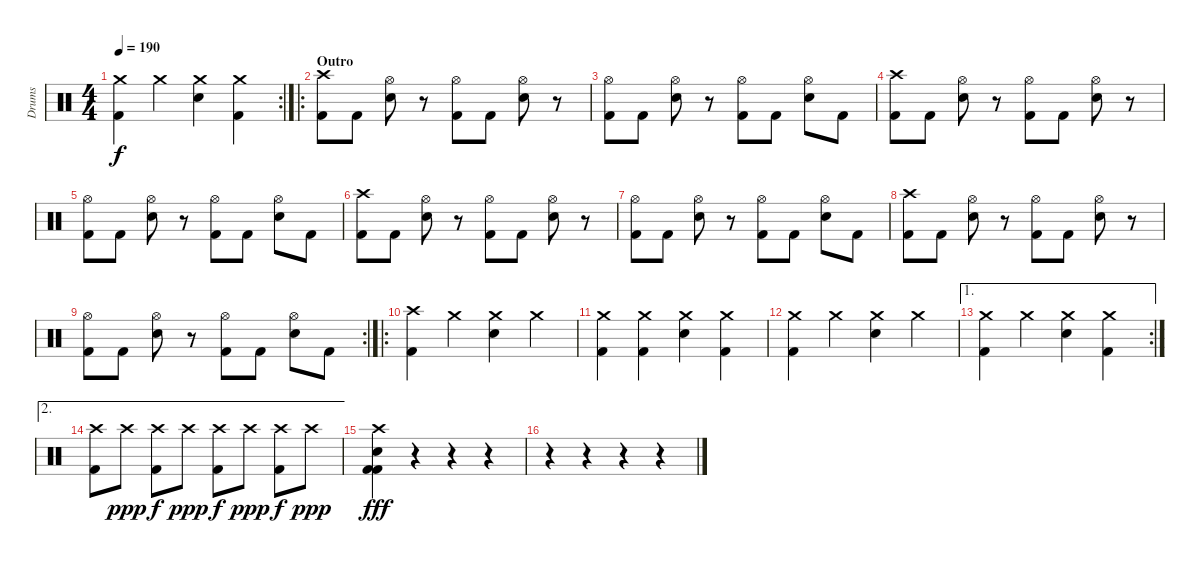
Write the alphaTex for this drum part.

\track ("Drums" "Drums") {instrument percussion}
\staff {score}
\articulation defaults
\rc 2
\ts (4 4)
\tempo 190
\clef neutral
\ks c
("Crash medium (hit)" "Kick (hit) 2").4{dy f} "Crash medium (hit)".4 ("Crash medium (hit)" "Electric Snare (hit)").4 ("Crash medium (hit)" "Kick (hit) 2").4 |
\ro
\section ("" "Outro")
("Crash high (hit)" "Kick (hit) 2").8 "Kick (hit) 2".8 ("Hi-Hat (open)" "Electric Snare (hit)").8 r.8 ("Hi-Hat (open)" "Kick (hit) 2").8 "Kick (hit) 2".8 ("Hi-Hat (open)" "Electric Snare (hit)").8 r.8 |
("Hi-Hat (open)" "Kick (hit) 2").8 "Kick (hit) 2".8 ("Hi-Hat (open)" "Electric Snare (hit)").8 r.8 ("Hi-Hat (open)" "Kick (hit) 2").8 "Kick (hit) 2".8 ("Hi-Hat (open)" "Electric Snare (hit)").8 "Kick (hit) 2".8 |
("Crash high (hit)" "Kick (hit) 2").8 "Kick (hit) 2".8 ("Hi-Hat (open)" "Electric Snare (hit)").8 r.8 ("Hi-Hat (open)" "Kick (hit) 2").8 "Kick (hit) 2".8 ("Hi-Hat (open)" "Electric Snare (hit)").8 r.8 |
("Hi-Hat (open)" "Kick (hit) 2").8 "Kick (hit) 2".8 ("Hi-Hat (open)" "Electric Snare (hit)").8 r.8 ("Hi-Hat (open)" "Kick (hit) 2").8 "Kick (hit) 2".8 ("Hi-Hat (open)" "Electric Snare (hit)").8 "Kick (hit) 2".8 |
("Crash high (hit)" "Kick (hit) 2").8 "Kick (hit) 2".8 ("Hi-Hat (open)" "Electric Snare (hit)").8 r.8 ("Hi-Hat (open)" "Kick (hit) 2").8 "Kick (hit) 2".8 ("Hi-Hat (open)" "Electric Snare (hit)").8 r.8 |
("Hi-Hat (open)" "Kick (hit) 2").8 "Kick (hit) 2".8 ("Hi-Hat (open)" "Electric Snare (hit)").8 r.8 ("Hi-Hat (open)" "Kick (hit) 2").8 "Kick (hit) 2".8 ("Hi-Hat (open)" "Electric Snare (hit)").8 "Kick (hit) 2".8 |
("Crash high (hit)" "Kick (hit) 2").8 "Kick (hit) 2".8 ("Hi-Hat (open)" "Electric Snare (hit)").8 r.8 ("Hi-Hat (open)" "Kick (hit) 2").8 "Kick (hit) 2".8 ("Hi-Hat (open)" "Electric Snare (hit)").8 r.8 |
\rc 2
("Hi-Hat (open)" "Kick (hit) 2").8 "Kick (hit) 2".8 ("Hi-Hat (open)" "Electric Snare (hit)").8 r.8 ("Hi-Hat (open)" "Kick (hit) 2").8 "Kick (hit) 2".8 ("Hi-Hat (open)" "Electric Snare (hit)").8 "Kick (hit) 2".8 |
\ro
("Crash high (hit)" "Kick (hit) 2").4 "Crash medium (hit)".4 ("Crash medium (hit)" "Electric Snare (hit)").4 "Crash medium (hit)".4 |
("Crash medium (hit)" "Kick (hit) 2").4 ("Crash medium (hit)" "Kick (hit) 2").4 ("Crash medium (hit)" "Electric Snare (hit)").4 ("Crash medium (hit)" "Kick (hit) 2").4 |
("Crash medium (hit)" "Kick (hit) 2").4 "Crash medium (hit)".4 ("Crash medium (hit)" "Electric Snare (hit)").4 "Crash medium (hit)".4 |
\ae 1
\rc 2
("Crash medium (hit)" "Kick (hit) 2").4 "Crash medium (hit)".4 ("Crash medium (hit)" "Electric Snare (hit)").4 ("Crash medium (hit)" "Kick (hit) 2").4 |
\ae 2
("Crash high (hit)" "Kick (hit) 2").8 "Crash high (hit)".8{dy ppp} ("Crash high (hit)" "Kick (hit) 2").8{dy f} "Crash high (hit)".8{dy ppp} ("Crash high (hit)" "Kick (hit) 2").8{dy f} "Crash high (hit)".8{dy ppp} ("Crash high (hit)" "Kick (hit) 2").8{dy f} "Crash high (hit)".8{dy ppp} |
("Crash high (hit)" "Electric Snare (hit)" "Kick (hit) 2" "Kick (hit) 2").4{dy fff} r.4 r.4 r.4 |
r.4 r.4 r.4 r.4
